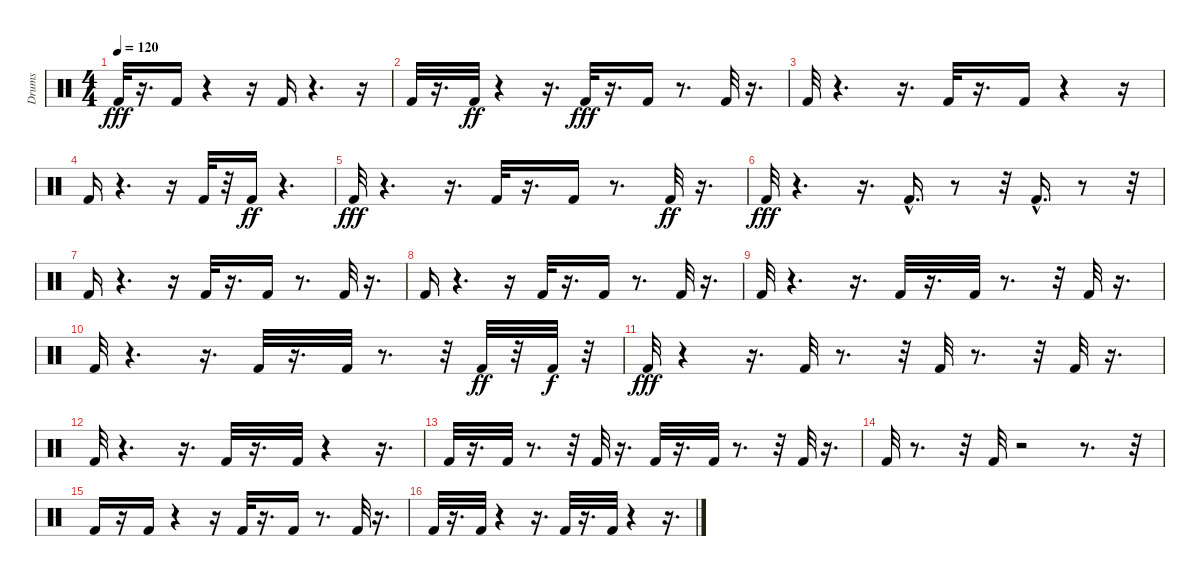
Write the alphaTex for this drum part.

\track ("Drums" "Drums") {instrument percussion}
\staff {score}
\articulation defaults
\ts (4 4)
\tempo 120
\clef neutral
\ks c "Kick (hit) 2".32{dy fff}
r.16{d} "Kick (hit) 2".16 r.4 r.16 "Kick (hit) 2".16 r.4{d} r.16 |
"Kick (hit) 2".32 r.16{d} "Kick (hit) 2".32{dy ff} r.4 r.16{d} "Kick (hit) 2".32{dy fff} r.16{d} "Kick (hit) 2".16 r.8{d} "Kick (hit) 2".32 r.16{d} |
"Kick (hit) 2".32 r.4{d} r.16{d} "Kick (hit) 2".32 r.16{d} "Kick (hit) 2".16 r.4 r.16 |
"Kick (hit) 2".16 r.4{d} r.16 "Kick (hit) 2".32 r.32 "Kick (hit) 2".16{dy ff} r.4{d} |
"Kick (hit) 2".32{dy fff} r.4{d} r.16{d} "Kick (hit) 2".32 r.16{d} "Kick (hit) 2".16 r.8{d} "Kick (hit) 2".32{dy ff} r.16{d} |
"Kick (hit) 2".32{dy fff} r.4{d} r.16{d} "Kick (hit) 2"{hac}.16{d} r.8 r.32 "Kick (hit) 2"{hac}.16{d} r.8 r.32 |
"Kick (hit) 2".16 r.4{d} r.16 "Kick (hit) 2".32 r.16{d} "Kick (hit) 2".16 r.8{d} "Kick (hit) 2".32 r.16{d} |
"Kick (hit) 2".16 r.4{d} r.16 "Kick (hit) 2".32 r.16{d} "Kick (hit) 2".16 r.8{d} "Kick (hit) 2".32 r.16{d} |
"Kick (hit) 2".32 r.4{d} r.16{d} "Kick (hit) 2".32 r.16{d} "Kick (hit) 2".32 r.8{d} r.32 "Kick (hit) 2".32 r.16{d} |
"Kick (hit) 2".32 r.4{d} r.16{d} "Kick (hit) 2".32 r.16{d} "Kick (hit) 2".32 r.8{d} r.32 "Kick (hit) 2".32{dy ff} r.32 "Kick (hit) 2".32{dy f} r.32 |
"Kick (hit) 2".32{dy fff} r.4 r.16{d} "Kick (hit) 2".32 r.8{d} r.32 "Kick (hit) 2".32 r.8{d} r.32 "Kick (hit) 2".32 r.16{d} |
"Kick (hit) 2".32 r.4{d} r.16{d} "Kick (hit) 2".32 r.16{d} "Kick (hit) 2".32 r.4 r.16{d} |
"Kick (hit) 2".32 r.16{d} "Kick (hit) 2".32 r.8{d} r.32 "Kick (hit) 2".32 r.16{d} "Kick (hit) 2".32 r.16{d} "Kick (hit) 2".32 r.8{d} r.32 "Kick (hit) 2".32 r.16{d} |
"Kick (hit) 2".32 r.8{d} r.32 "Kick (hit) 2".32 r.2 r.8{d} r.32 |
"Kick (hit) 2".16 r.16 "Kick (hit) 2".16 r.4 r.16 "Kick (hit) 2".32 r.16{d} "Kick (hit) 2".16 r.8{d} "Kick (hit) 2".32 r.16{d} |
"Kick (hit) 2".32 r.16{d} "Kick (hit) 2".32 r.4 r.16{d} "Kick (hit) 2".32 r.16{d} "Kick (hit) 2".32 r.4 r.16{d}
